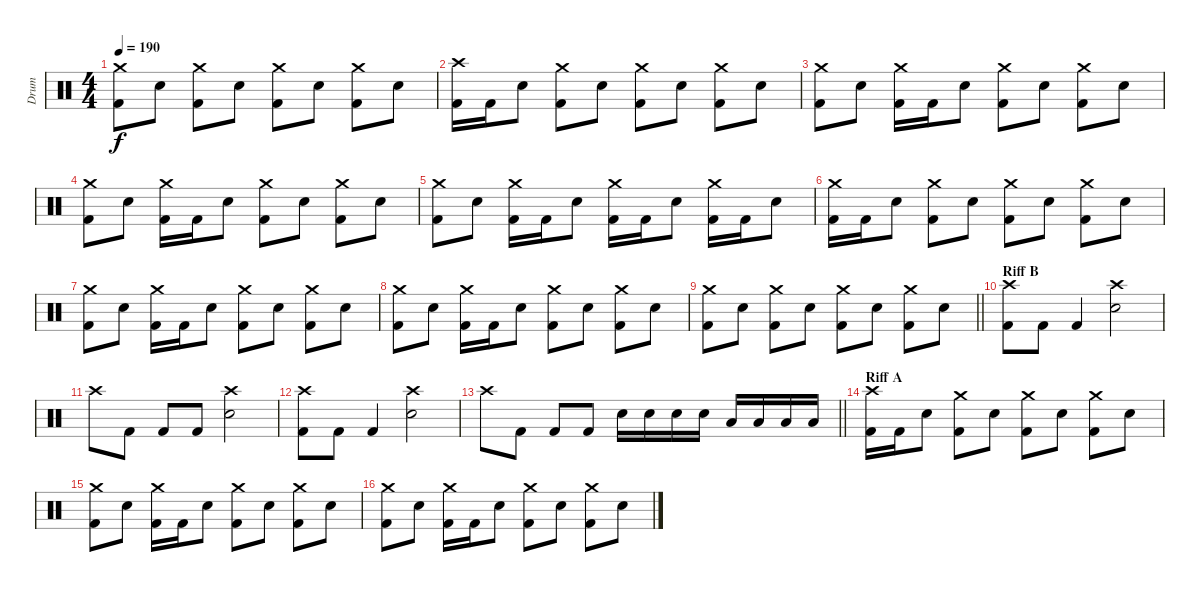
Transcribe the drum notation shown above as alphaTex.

\track ("Drum" "Drum") {instrument percussion}
\staff {score}
\articulation defaults
\ts (4 4)
\tempo 190
\clef neutral
\ks c
("Crash medium (hit)" "Kick (hit) 2").8{dy f} "Electric Snare (hit)".8 ("Crash medium (hit)" "Kick (hit) 2").8 "Electric Snare (hit)".8 ("Crash medium (hit)" "Kick (hit) 2").8 "Electric Snare (hit)".8 ("Crash medium (hit)" "Kick (hit) 2").8 "Electric Snare (hit)".8 |
("Crash high (hit)" "Kick (hit) 2").16 "Kick (hit) 2".16 "Electric Snare (hit)".8 ("Crash medium (hit)" "Kick (hit) 2").8 "Electric Snare (hit)".8 ("Crash medium (hit)" "Kick (hit) 2").8 "Electric Snare (hit)".8 ("Crash medium (hit)" "Kick (hit) 2").8 "Electric Snare (hit)".8 |
("Crash medium (hit)" "Kick (hit) 2").8 "Electric Snare (hit)".8 ("Crash medium (hit)" "Kick (hit) 2").16 "Kick (hit) 2".16 "Electric Snare (hit)".8 ("Crash medium (hit)" "Kick (hit) 2").8 "Electric Snare (hit)".8 ("Crash medium (hit)" "Kick (hit) 2").8 "Electric Snare (hit)".8 |
("Crash medium (hit)" "Kick (hit) 2").8 "Electric Snare (hit)".8 ("Crash medium (hit)" "Kick (hit) 2").16 "Kick (hit) 2".16 "Electric Snare (hit)".8 ("Crash medium (hit)" "Kick (hit) 2").8 "Electric Snare (hit)".8 ("Crash medium (hit)" "Kick (hit) 2").8 "Electric Snare (hit)".8 |
("Crash medium (hit)" "Kick (hit) 2").8 "Electric Snare (hit)".8 ("Crash medium (hit)" "Kick (hit) 2").16 "Kick (hit) 2".16 "Electric Snare (hit)".8 ("Crash medium (hit)" "Kick (hit) 2").16 "Kick (hit) 2".16 "Electric Snare (hit)".8 ("Crash medium (hit)" "Kick (hit) 2").16 "Kick (hit) 2".16 "Electric Snare (hit)".8 |
("Crash medium (hit)" "Kick (hit) 2").16 "Kick (hit) 2".16 "Electric Snare (hit)".8 ("Crash medium (hit)" "Kick (hit) 2").8 "Electric Snare (hit)".8 ("Crash medium (hit)" "Kick (hit) 2").8 "Electric Snare (hit)".8 ("Crash medium (hit)" "Kick (hit) 2").8 "Electric Snare (hit)".8 |
("Crash medium (hit)" "Kick (hit) 2").8 "Electric Snare (hit)".8 ("Crash medium (hit)" "Kick (hit) 2").16 "Kick (hit) 2".16 "Electric Snare (hit)".8 ("Crash medium (hit)" "Kick (hit) 2").8 "Electric Snare (hit)".8 ("Crash medium (hit)" "Kick (hit) 2").8 "Electric Snare (hit)".8 |
("Crash medium (hit)" "Kick (hit) 2").8 "Electric Snare (hit)".8 ("Crash medium (hit)" "Kick (hit) 2").16 "Kick (hit) 2".16 "Electric Snare (hit)".8 ("Crash medium (hit)" "Kick (hit) 2").8 "Electric Snare (hit)".8 ("Crash medium (hit)" "Kick (hit) 2").8 "Electric Snare (hit)".8 |
\barLineRight lightlight
("Crash medium (hit)" "Kick (hit) 2").8 "Electric Snare (hit)".8 ("Crash medium (hit)" "Kick (hit) 2").8 "Electric Snare (hit)".8 ("Crash medium (hit)" "Kick (hit) 2").8 "Electric Snare (hit)".8 ("Crash medium (hit)" "Kick (hit) 2").8 "Electric Snare (hit)".8 |
\section ("" "Riff B")
("Crash high (hit)" "Kick (hit) 2").8 "Kick (hit) 2".8 "Kick (hit) 2".4 ("Crash high (hit)" "Electric Snare (hit)").2 |
"Crash high (hit)".8 "Kick (hit) 2".8 "Kick (hit) 2".8 "Kick (hit) 2".8 ("Crash high (hit)" "Electric Snare (hit)").2 |
("Crash high (hit)" "Kick (hit) 2").8 "Kick (hit) 2".8 "Kick (hit) 2".4 ("Crash high (hit)" "Electric Snare (hit)").2 |
\barLineRight lightlight "Crash high (hit)".8 "Kick (hit) 2".8 "Kick (hit) 2".8 "Kick (hit) 2".8 "Electric Snare (hit)".16 "Electric Snare (hit)".16 "Electric Snare (hit)".16 "Electric Snare (hit)".16 "Low Tom (hit)".16 "Low Tom (hit)".16 "Low Tom (hit)".16 "Low Tom (hit)".16
|
\section ("" "Riff A")
("Crash high (hit)" "Kick (hit) 2").16 "Kick (hit) 2".16 "Electric Snare (hit)".8 ("Crash medium (hit)" "Kick (hit) 2").8 "Electric Snare (hit)".8 ("Crash medium (hit)" "Kick (hit) 2").8 "Electric Snare (hit)".8 ("Crash medium (hit)" "Kick (hit) 2").8 "Electric Snare (hit)".8 |
("Crash medium (hit)" "Kick (hit) 2").8 "Electric Snare (hit)".8 ("Crash medium (hit)" "Kick (hit) 2").16 "Kick (hit) 2".16 "Electric Snare (hit)".8 ("Crash medium (hit)" "Kick (hit) 2").8 "Electric Snare (hit)".8 ("Crash medium (hit)" "Kick (hit) 2").8 "Electric Snare (hit)".8 |
("Crash medium (hit)" "Kick (hit) 2").8 "Electric Snare (hit)".8 ("Crash medium (hit)" "Kick (hit) 2").16 "Kick (hit) 2".16 "Electric Snare (hit)".8 ("Crash medium (hit)" "Kick (hit) 2").8 "Electric Snare (hit)".8 ("Crash medium (hit)" "Kick (hit) 2").8 "Electric Snare (hit)".8
